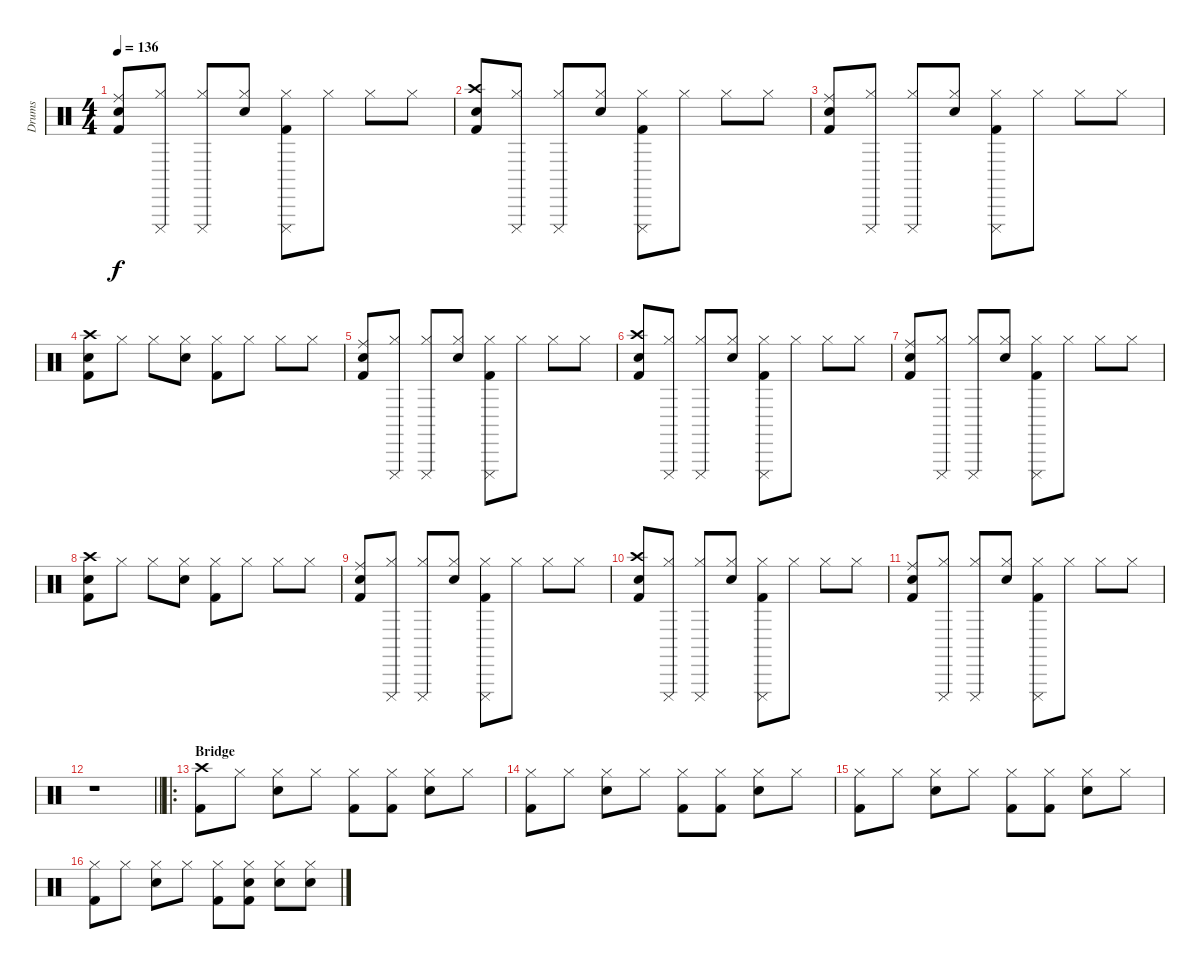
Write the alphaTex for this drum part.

\track ("Drums" "Drums") {instrument percussion}
\staff {score}
\articulation defaults
\ts (4 4)
\tempo 136
\clef neutral
\ks c
("Ride (middle)" "Electric Snare (hit)" "Kick (hit) 2").8{dy f} ("Cuica (mute)" "Hi-Hat (closed)").8 ("Cuica (mute)" "Hi-Hat (closed)").8 ("Hi-Hat (closed)" "Electric Snare (hit)").8 ("Cuica (mute)" "Hi-Hat (closed)" "Kick (hit) 2").8 "Hi-Hat (closed)".8 "Hi-Hat (closed)".8 "Hi-Hat (closed)".8 |
("Crash high (hit)" "Electric Snare (hit)" "Kick (hit) 2").8 ("Cuica (mute)" "Hi-Hat (closed)").8 ("Cuica (mute)" "Hi-Hat (closed)").8 ("Hi-Hat (closed)" "Electric Snare (hit)").8 ("Cuica (mute)" "Hi-Hat (closed)" "Kick (hit) 2").8 "Hi-Hat (closed)".8 "Hi-Hat (closed)".8 "Hi-Hat (closed)".8 |
("Ride (middle)" "Electric Snare (hit)" "Kick (hit) 2").8 ("Cuica (mute)" "Hi-Hat (closed)").8 ("Cuica (mute)" "Hi-Hat (closed)").8 ("Hi-Hat (closed)" "Electric Snare (hit)").8 ("Cuica (mute)" "Hi-Hat (closed)" "Kick (hit) 2").8 "Hi-Hat (closed)".8 "Hi-Hat (closed)".8 "Hi-Hat (closed)".8 |
("Crash high (hit)" "Electric Snare (hit)" "Kick (hit) 2").8 "Hi-Hat (closed)".8 "Hi-Hat (closed)".8 ("Hi-Hat (closed)" "Electric Snare (hit)").8 ("Hi-Hat (closed)" "Kick (hit) 2").8 "Hi-Hat (closed)".8 "Hi-Hat (closed)".8 "Hi-Hat (closed)".8 |
("Ride (middle)" "Electric Snare (hit)" "Kick (hit) 2").8 ("Cuica (mute)" "Hi-Hat (closed)").8 ("Cuica (mute)" "Hi-Hat (closed)").8 ("Hi-Hat (closed)" "Electric Snare (hit)").8 ("Cuica (mute)" "Hi-Hat (closed)" "Kick (hit) 2").8 "Hi-Hat (closed)".8 "Hi-Hat (closed)".8 "Hi-Hat (closed)".8 |
("Crash high (hit)" "Electric Snare (hit)" "Kick (hit) 2").8 ("Cuica (mute)" "Hi-Hat (closed)").8 ("Cuica (mute)" "Hi-Hat (closed)").8 ("Hi-Hat (closed)" "Electric Snare (hit)").8 ("Cuica (mute)" "Hi-Hat (closed)" "Kick (hit) 2").8 "Hi-Hat (closed)".8 "Hi-Hat (closed)".8 "Hi-Hat (closed)".8 |
("Ride (middle)" "Electric Snare (hit)" "Kick (hit) 2").8 ("Cuica (mute)" "Hi-Hat (closed)").8 ("Cuica (mute)" "Hi-Hat (closed)").8 ("Hi-Hat (closed)" "Electric Snare (hit)").8 ("Cuica (mute)" "Hi-Hat (closed)" "Kick (hit) 2").8 "Hi-Hat (closed)".8 "Hi-Hat (closed)".8 "Hi-Hat (closed)".8 |
("Crash high (hit)" "Electric Snare (hit)" "Kick (hit) 2").8 "Hi-Hat (closed)".8 "Hi-Hat (closed)".8 ("Hi-Hat (closed)" "Electric Snare (hit)").8 ("Hi-Hat (closed)" "Kick (hit) 2").8 "Hi-Hat (closed)".8 "Hi-Hat (closed)".8 "Hi-Hat (closed)".8 |
("Ride (middle)" "Electric Snare (hit)" "Kick (hit) 2").8 ("Cuica (mute)" "Hi-Hat (closed)").8 ("Cuica (mute)" "Hi-Hat (closed)").8 ("Hi-Hat (closed)" "Electric Snare (hit)").8 ("Cuica (mute)" "Hi-Hat (closed)" "Kick (hit) 2").8 "Hi-Hat (closed)".8 "Hi-Hat (closed)".8 "Hi-Hat (closed)".8 |
("Crash high (hit)" "Electric Snare (hit)" "Kick (hit) 2").8 ("Cuica (mute)" "Hi-Hat (closed)").8 ("Cuica (mute)" "Hi-Hat (closed)").8 ("Hi-Hat (closed)" "Electric Snare (hit)").8 ("Cuica (mute)" "Hi-Hat (closed)" "Kick (hit) 2").8 "Hi-Hat (closed)".8 "Hi-Hat (closed)".8 "Hi-Hat (closed)".8 |
("Ride (middle)" "Electric Snare (hit)" "Kick (hit) 2").8 ("Cuica (mute)" "Hi-Hat (closed)").8 ("Cuica (mute)" "Hi-Hat (closed)").8 ("Hi-Hat (closed)" "Electric Snare (hit)").8 ("Cuica (mute)" "Hi-Hat (closed)" "Kick (hit) 2").8 "Hi-Hat (closed)".8 "Hi-Hat (closed)".8 "Hi-Hat (closed)".8 |
\barLineRight lightlight
r.1 |
\ro
\section ("" "Bridge")
("Crash high (hit)" "Kick (hit) 2").8 "Hi-Hat (closed)".8 ("Hi-Hat (closed)" "Electric Snare (hit)").8 "Hi-Hat (closed)".8 ("Hi-Hat (closed)" "Kick (hit) 2").8 ("Hi-Hat (closed)" "Kick (hit) 2").8 ("Hi-Hat (closed)" "Electric Snare (hit)").8 "Hi-Hat (closed)".8 |
("Hi-Hat (closed)" "Kick (hit) 2").8 "Hi-Hat (closed)".8 ("Hi-Hat (closed)" "Electric Snare (hit)").8 "Hi-Hat (closed)".8 ("Hi-Hat (closed)" "Kick (hit) 2").8 ("Hi-Hat (closed)" "Kick (hit) 2").8 ("Hi-Hat (closed)" "Electric Snare (hit)").8 "Hi-Hat (closed)".8 |
("Hi-Hat (closed)" "Kick (hit) 2").8 "Hi-Hat (closed)".8 ("Hi-Hat (closed)" "Electric Snare (hit)").8 "Hi-Hat (closed)".8 ("Hi-Hat (closed)" "Kick (hit) 2").8 ("Hi-Hat (closed)" "Kick (hit) 2").8 ("Hi-Hat (closed)" "Electric Snare (hit)").8 "Hi-Hat (closed)".8 |
("Hi-Hat (closed)" "Kick (hit) 2").8 "Hi-Hat (closed)".8 ("Hi-Hat (closed)" "Electric Snare (hit)").8 "Hi-Hat (closed)".8 ("Hi-Hat (closed)" "Kick (hit) 2").8 ("Hi-Hat (closed)" "Electric Snare (hit)" "Kick (hit) 2").8 ("Hi-Hat (closed)" "Electric Snare (hit)").8 ("Hi-Hat (closed)" "Electric Snare (hit)").8
